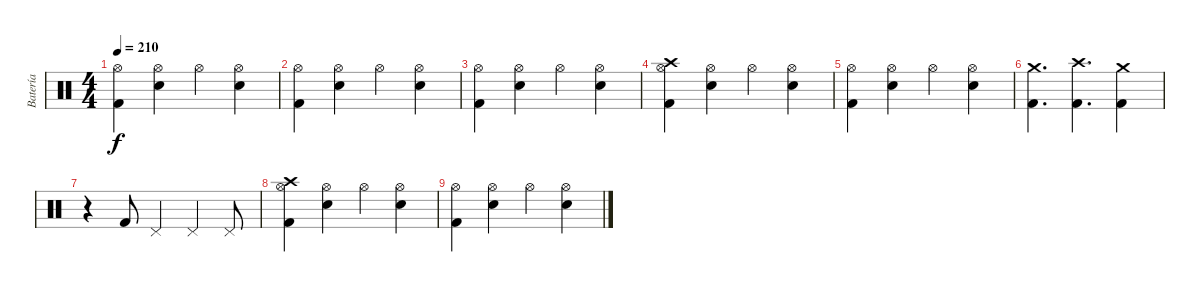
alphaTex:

\track ("Batería" "Batería") {instrument percussion}
\staff {score}
\articulation defaults
\ts (4 4)
\tempo 210
\clef neutral
\ks c
("Hi-Hat (open)" "Kick (hit) 2").4{dy f} ("Hi-Hat (open)" "Electric Snare (hit)").4 "Hi-Hat (open)".4 ("Hi-Hat (open)" "Electric Snare (hit)").4 |
("Hi-Hat (open)" "Kick (hit) 2").4 ("Hi-Hat (open)" "Electric Snare (hit)").4 "Hi-Hat (open)".4 ("Hi-Hat (open)" "Electric Snare (hit)").4 |
("Hi-Hat (open)" "Kick (hit) 2").4 ("Hi-Hat (open)" "Electric Snare (hit)").4 "Hi-Hat (open)".4 ("Hi-Hat (open)" "Electric Snare (hit)").4 |
("Hi-Hat (open)" "Kick (hit) 2" "Crash high (hit)").4 ("Hi-Hat (open)" "Electric Snare (hit)").4 "Hi-Hat (open)".4 ("Hi-Hat (open)" "Electric Snare (hit)").4 |
("Hi-Hat (open)" "Kick (hit) 2").4 ("Hi-Hat (open)" "Electric Snare (hit)").4 "Hi-Hat (open)".4 ("Hi-Hat (open)" "Electric Snare (hit)").4 |
("Kick (hit) 2" "Crash medium (hit)").4{d} ("Kick (hit) 2" "Crash high (hit)").4{d} ("Kick (hit) 2" "Crash medium (hit)").4 |
r.4 "Kick (hit) 2".8 "Pedal Hi-Hat (hit)".4 "Pedal Hi-Hat (hit)".4 "Pedal Hi-Hat (hit)".8 |
("Hi-Hat (open)" "Kick (hit) 2" "Crash high (hit)").4 ("Hi-Hat (open)" "Electric Snare (hit)").4 "Hi-Hat (open)".4 ("Hi-Hat (open)" "Electric Snare (hit)").4 |
("Hi-Hat (open)" "Kick (hit) 2").4 ("Hi-Hat (open)" "Electric Snare (hit)").4 "Hi-Hat (open)".4 ("Hi-Hat (open)" "Electric Snare (hit)").4
